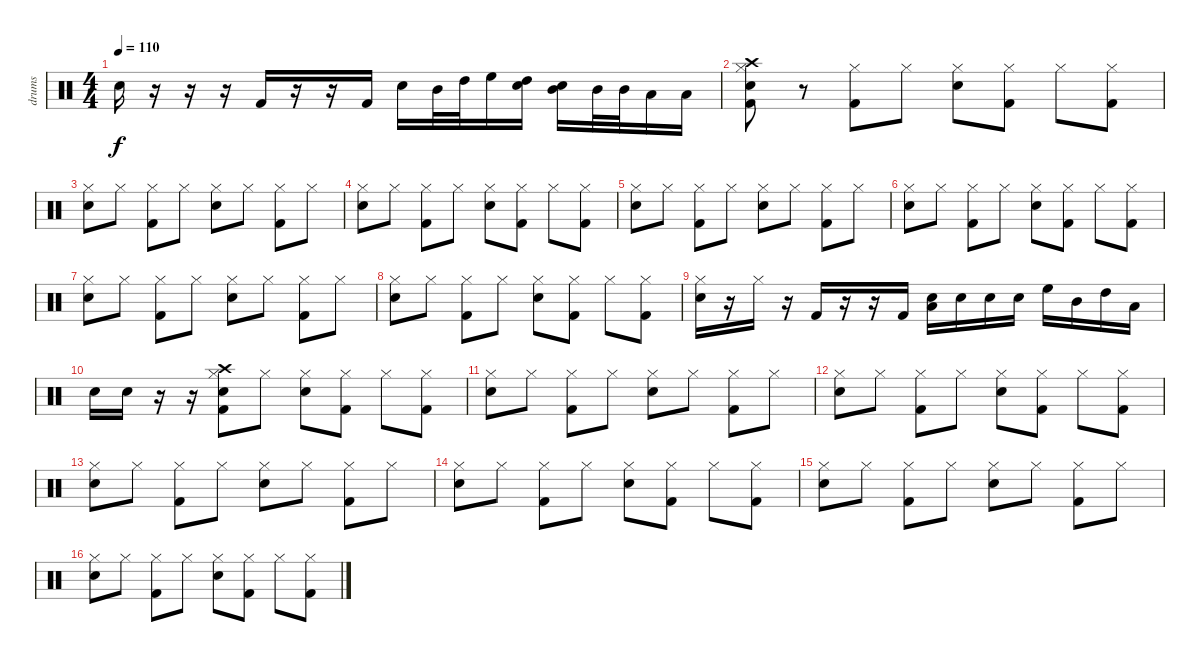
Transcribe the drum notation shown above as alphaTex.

\track ("drums" "drums") {instrument percussion}
\staff {score}
\articulation defaults
\ts (4 4)
\tempo 110
\clef neutral
\ks c "Electric Snare (hit)".16{dy f}
r.16 r.16 r.16 "Kick (hit) 2".16 r.16 r.16 "Kick (hit) 2".16 "Electric Snare (hit)".16 "Mid Tom (hit)".32 "High Tom (hit)".32 "High Floor Tom (hit)".16 ("Electric Snare (hit)" "High Tom (hit)").16 ("Electric Snare (hit)" "Mid Tom (hit)").16 "Mid Tom (hit)".32 "Mid Tom (hit)".32 "Low Tom (hit)".16 "Low Tom (hit)".16 |
("Hi-Hat (closed)" "Snare (hit) 2" "Crash high (hit)" "Kick (hit) 2").8 r.8 ("Hi-Hat (closed)" "Kick (hit) 2").8 "Hi-Hat (closed)".8 ("Hi-Hat (closed)" "Electric Snare (hit)").8 ("Hi-Hat (closed)" "Kick (hit) 2").8 "Hi-Hat (closed)".8 ("Hi-Hat (closed)" "Kick (hit) 2").8 |
("Hi-Hat (closed)" "Electric Snare (hit)").8 "Hi-Hat (closed)".8 ("Hi-Hat (closed)" "Kick (hit) 2").8 "Hi-Hat (closed)".8 ("Hi-Hat (closed)" "Electric Snare (hit)").8 "Hi-Hat (closed)".8 ("Hi-Hat (closed)" "Kick (hit) 2").8 "Hi-Hat (closed)".8 |
("Hi-Hat (closed)" "Electric Snare (hit)").8 "Hi-Hat (closed)".8 ("Hi-Hat (closed)" "Kick (hit) 2").8 "Hi-Hat (closed)".8 ("Hi-Hat (closed)" "Electric Snare (hit)").8 ("Hi-Hat (closed)" "Kick (hit) 2").8 "Hi-Hat (closed)".8 ("Hi-Hat (closed)" "Kick (hit) 2").8 |
("Hi-Hat (closed)" "Electric Snare (hit)").8 "Hi-Hat (closed)".8 ("Hi-Hat (closed)" "Kick (hit) 2").8 "Hi-Hat (closed)".8 ("Hi-Hat (closed)" "Electric Snare (hit)").8 "Hi-Hat (closed)".8 ("Hi-Hat (closed)" "Kick (hit) 2").8 "Hi-Hat (closed)".8 |
("Hi-Hat (closed)" "Electric Snare (hit)").8 "Hi-Hat (closed)".8 ("Hi-Hat (closed)" "Kick (hit) 2").8 "Hi-Hat (closed)".8 ("Hi-Hat (closed)" "Electric Snare (hit)").8 ("Hi-Hat (closed)" "Kick (hit) 2").8 "Hi-Hat (closed)".8 ("Hi-Hat (closed)" "Kick (hit) 2").8 |
("Hi-Hat (closed)" "Electric Snare (hit)").8 "Hi-Hat (closed)".8 ("Hi-Hat (closed)" "Kick (hit) 2").8 "Hi-Hat (closed)".8 ("Hi-Hat (closed)" "Electric Snare (hit)").8 "Hi-Hat (closed)".8 ("Hi-Hat (closed)" "Kick (hit) 2").8 "Hi-Hat (closed)".8 |
("Hi-Hat (closed)" "Electric Snare (hit)").8 "Hi-Hat (closed)".8 ("Hi-Hat (closed)" "Kick (hit) 2").8 "Hi-Hat (closed)".8 ("Hi-Hat (closed)" "Electric Snare (hit)").8 ("Hi-Hat (closed)" "Kick (hit) 2").8 "Hi-Hat (closed)".8 ("Hi-Hat (closed)" "Kick (hit) 2").8 |
("Hi-Hat (closed)" "Electric Snare (hit)").16 r.16 "Hi-Hat (closed)".16 r.16 "Kick (hit) 2".16 r.16 r.16 "Kick (hit) 2".16 ("Snare (hit) 2" "Low Floor Tom (hit)").16 "Electric Snare (hit)".16 "Electric Snare (hit)".16 "Electric Snare (hit)".16 "High Floor Tom (hit)".16 "Mid Tom (hit)".16 "High Tom (hit)".16 "Low Tom (hit)".16 |
"Electric Snare (hit)".16 "Electric Snare (hit)".16 r.16 r.16 ("Hi-Hat (closed)" "Crash high (hit)" "Snare (hit) 2" "Kick (hit) 2").8 "Hi-Hat (closed)".8 ("Hi-Hat (closed)" "Electric Snare (hit)").8 ("Hi-Hat (closed)" "Kick (hit) 2").8 "Hi-Hat (closed)".8 ("Hi-Hat (closed)" "Kick (hit) 2").8 |
("Hi-Hat (closed)" "Electric Snare (hit)").8 "Hi-Hat (closed)".8 ("Hi-Hat (closed)" "Kick (hit) 2").8 "Hi-Hat (closed)".8 ("Hi-Hat (closed)" "Electric Snare (hit)").8 "Hi-Hat (closed)".8 ("Hi-Hat (closed)" "Kick (hit) 2").8 "Hi-Hat (closed)".8 |
("Hi-Hat (closed)" "Electric Snare (hit)").8 "Hi-Hat (closed)".8 ("Hi-Hat (closed)" "Kick (hit) 2").8 "Hi-Hat (closed)".8 ("Hi-Hat (closed)" "Electric Snare (hit)").8 ("Hi-Hat (closed)" "Kick (hit) 2").8 "Hi-Hat (closed)".8 ("Hi-Hat (closed)" "Kick (hit) 2").8 |
("Hi-Hat (closed)" "Electric Snare (hit)").8 "Hi-Hat (closed)".8 ("Hi-Hat (closed)" "Kick (hit) 2").8 "Hi-Hat (closed)".8 ("Hi-Hat (closed)" "Electric Snare (hit)").8 "Hi-Hat (closed)".8 ("Hi-Hat (closed)" "Kick (hit) 2").8 "Hi-Hat (closed)".8 |
("Hi-Hat (closed)" "Electric Snare (hit)").8 "Hi-Hat (closed)".8 ("Hi-Hat (closed)" "Kick (hit) 2").8 "Hi-Hat (closed)".8 ("Hi-Hat (closed)" "Electric Snare (hit)").8 ("Hi-Hat (closed)" "Kick (hit) 2").8 "Hi-Hat (closed)".8 ("Hi-Hat (closed)" "Kick (hit) 2").8 |
("Hi-Hat (closed)" "Electric Snare (hit)").8 "Hi-Hat (closed)".8 ("Hi-Hat (closed)" "Kick (hit) 2").8 "Hi-Hat (closed)".8 ("Hi-Hat (closed)" "Electric Snare (hit)").8 "Hi-Hat (closed)".8 ("Hi-Hat (closed)" "Kick (hit) 2").8 "Hi-Hat (closed)".8 |
("Hi-Hat (closed)" "Electric Snare (hit)").8 "Hi-Hat (closed)".8 ("Hi-Hat (closed)" "Kick (hit) 2").8 "Hi-Hat (closed)".8 ("Hi-Hat (closed)" "Electric Snare (hit)").8 ("Hi-Hat (closed)" "Kick (hit) 2").8 "Hi-Hat (closed)".8 ("Hi-Hat (closed)" "Kick (hit) 2").8
